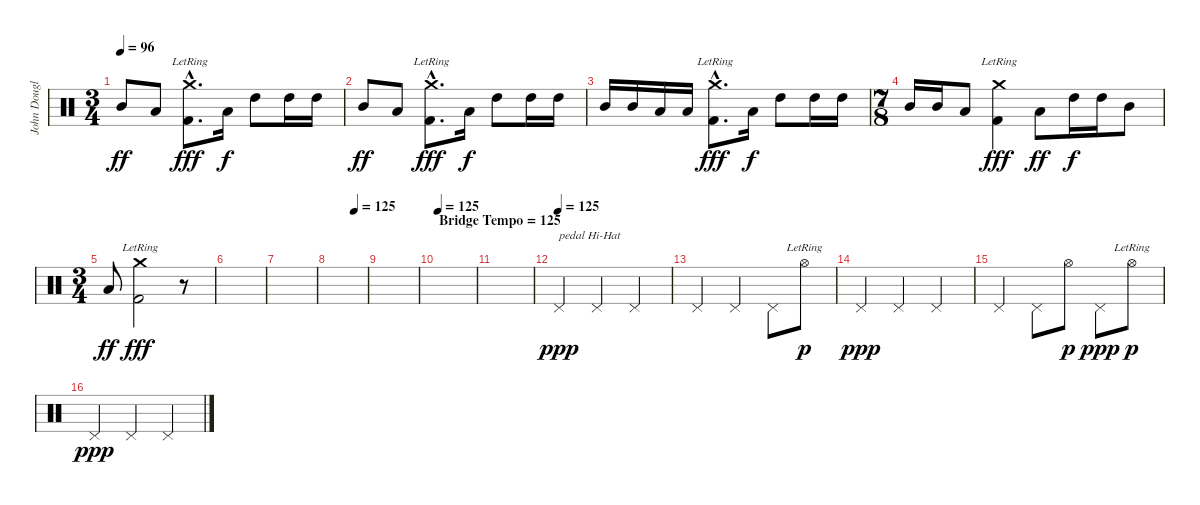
\track ("John Douglas (Drums)" "John Dougl") {instrument percussion}
\staff {score}
\articulation defaults
\ts (3 4)
\tempo 96
\clef neutral
\ks c "Mid Tom (hit)".8{dy ff} "Low Tom (hit)".8
("Crash medium (hit)"{hac lr} "Kick (hit) 2"{hac}).8{d dy fff} "Low Tom (hit)".16{dy f} "High Tom (hit)".8 "High Tom (hit)".16 "High Tom (hit)".16 |
"Mid Tom (hit)".8{dy ff} "Low Tom (hit)".8 ("Crash medium (hit)"{hac lr} "Kick (hit) 2"{hac}).8{d dy fff} "Low Tom (hit)".16{dy f} "High Tom (hit)".8 "High Tom (hit)".16 "High Tom (hit)".16 |
"Mid Tom (hit)".16 "Mid Tom (hit)".16 "Low Tom (hit)".16 "Low Tom (hit)".16 ("Crash medium (hit)"{hac lr} "Kick (hit) 2"{hac}).8{d dy fff} "Low Tom (hit)".16{dy f} "High Tom (hit)".8 "High Tom (hit)".16 "High Tom (hit)".16 |
\ts (7 8)
"Mid Tom (hit)".16 "Mid Tom (hit)".16 "Low Tom (hit)".8 ("Crash medium (hit)"{lr} "Kick (hit) 2").4{dy fff} "Low Tom (hit)".8{dy ff} "High Tom (hit)".16{dy f} "High Tom (hit)".16 "Mid Tom (hit)".8 |
\ts (3 4)
"Low Tom (hit)".8{dy ff} ("Crash medium (hit)"{lr} "Kick (hit) 2").2{dy fff} r.8 |
|
|
\tempo (125 0.6666666666666666)
|
|
\section ("" "Bridge Tempo = 125")
\tempo 125
|
|
\tempo (125)
"Pedal Hi-Hat (hit)".4{txt "pedal Hi-Hat" dy ppp} "Pedal Hi-Hat (hit)".4 "Pedal Hi-Hat (hit)".4 |
"Pedal Hi-Hat (hit)".4 "Pedal Hi-Hat (hit)".4 "Pedal Hi-Hat (hit)".8 "Hi-Hat (open)"{lr}.8{dy p} |
"Pedal Hi-Hat (hit)".4{dy ppp} "Pedal Hi-Hat (hit)".4 "Pedal Hi-Hat (hit)".4 |
"Pedal Hi-Hat (hit)".4 "Pedal Hi-Hat (hit)".8 "Hi-Hat (open)".8{dy p} "Pedal Hi-Hat (hit)".8{dy ppp} "Hi-Hat (open)"{lr}.8{dy p} |
"Pedal Hi-Hat (hit)".4{dy ppp} "Pedal Hi-Hat (hit)".4 "Pedal Hi-Hat (hit)".4
